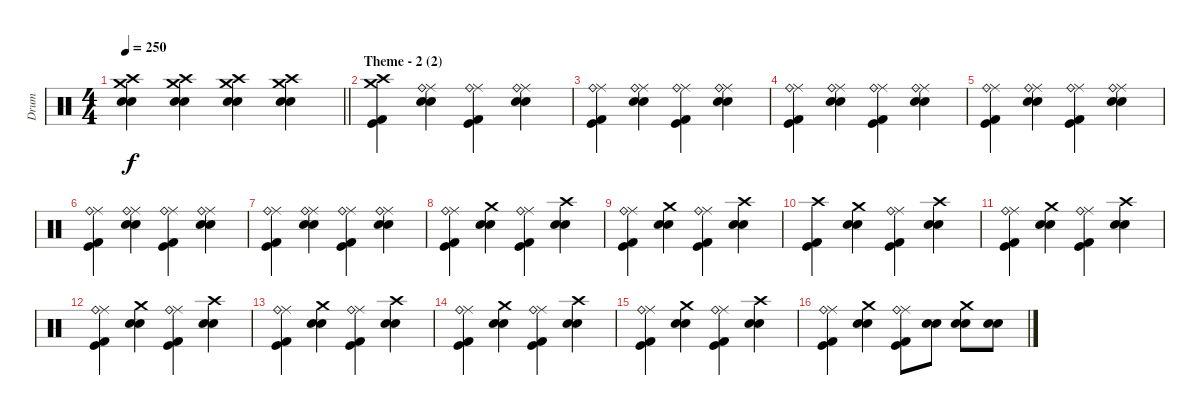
\track ("Drum" "Drum") {instrument percussion}
\staff {score}
\articulation defaults
\ts (4 4)
\tempo 250
\clef neutral
\barLineRight lightlight
\ks c
("Crash medium (hit)" "Crash high (hit)" "Electric Snare (hit)" "Snare (hit) 2").4{dy f} ("Crash medium (hit)" "Crash high (hit)" "Electric Snare (hit)" "Snare (hit) 2").4 ("Crash medium (hit)" "Crash high (hit)" "Electric Snare (hit)" "Snare (hit) 2").4 ("Crash medium (hit)" "Crash high (hit)" "Electric Snare (hit)" "Snare (hit) 2").4 |
\section ("" "Theme - 2 (2)")
("Crash high (hit)" "Crash medium (hit)" "Kick (hit) 2" "Kick (hit)").4 ("Ride (middle)" "Ride (bell)" "Electric Snare (hit)" "Snare (hit) 2").4 ("Ride (middle)" "Ride (bell)" "Kick (hit) 2" "Kick (hit)").4 ("Ride (middle)" "Ride (bell)" "Electric Snare (hit)" "Snare (hit) 2").4 |
("Ride (middle)" "Ride (bell)" "Kick (hit) 2" "Kick (hit)").4 ("Ride (middle)" "Ride (bell)" "Electric Snare (hit)" "Snare (hit) 2").4 ("Ride (middle)" "Ride (bell)" "Kick (hit) 2" "Kick (hit)").4 ("Ride (middle)" "Ride (bell)" "Electric Snare (hit)" "Snare (hit) 2").4 |
("Ride (middle)" "Ride (bell)" "Kick (hit) 2" "Kick (hit)").4 ("Ride (middle)" "Ride (bell)" "Electric Snare (hit)" "Snare (hit) 2").4 ("Ride (middle)" "Ride (bell)" "Kick (hit) 2" "Kick (hit)").4 ("Ride (middle)" "Ride (bell)" "Electric Snare (hit)" "Snare (hit) 2").4 |
("Ride (middle)" "Ride (bell)" "Kick (hit) 2" "Kick (hit)").4 ("Ride (middle)" "Ride (bell)" "Electric Snare (hit)" "Snare (hit) 2").4 ("Ride (middle)" "Ride (bell)" "Kick (hit) 2" "Kick (hit)").4 ("Ride (middle)" "Ride (bell)" "Electric Snare (hit)" "Snare (hit) 2").4 |
("Ride (middle)" "Ride (bell)" "Kick (hit) 2" "Kick (hit)").4 ("Ride (middle)" "Ride (bell)" "Electric Snare (hit)" "Snare (hit) 2").4 ("Ride (middle)" "Ride (bell)" "Kick (hit) 2" "Kick (hit)").4 ("Ride (middle)" "Ride (bell)" "Electric Snare (hit)" "Snare (hit) 2").4 |
("Ride (middle)" "Ride (bell)" "Kick (hit) 2" "Kick (hit)").4 ("Ride (middle)" "Ride (bell)" "Electric Snare (hit)" "Snare (hit) 2").4 ("Ride (middle)" "Ride (bell)" "Kick (hit) 2" "Kick (hit)").4 ("Ride (middle)" "Ride (bell)" "Electric Snare (hit)" "Snare (hit) 2").4 |
("Ride (middle)" "Ride (bell)" "Kick (hit) 2" "Kick (hit)").4 ("Crash medium (hit)" "Electric Snare (hit)" "Snare (hit) 2").4 ("Ride (middle)" "Ride (bell)" "Kick (hit) 2" "Kick (hit)").4 ("Crash high (hit)" "Electric Snare (hit)" "Snare (hit) 2").4 |
("Ride (middle)" "Ride (bell)" "Kick (hit) 2" "Kick (hit)").4 ("Crash medium (hit)" "Electric Snare (hit)" "Snare (hit) 2").4 ("Ride (middle)" "Ride (bell)" "Kick (hit) 2" "Kick (hit)").4 ("Crash high (hit)" "Electric Snare (hit)" "Snare (hit) 2").4 |
("Crash high (hit)" "Kick (hit) 2" "Kick (hit)").4 ("Crash medium (hit)" "Electric Snare (hit)" "Snare (hit) 2").4 ("Ride (middle)" "Ride (bell)" "Kick (hit) 2" "Kick (hit)").4 ("Crash high (hit)" "Electric Snare (hit)" "Snare (hit) 2").4 |
("Ride (middle)" "Ride (bell)" "Kick (hit) 2" "Kick (hit)").4 ("Crash medium (hit)" "Electric Snare (hit)" "Snare (hit) 2").4 ("Ride (middle)" "Ride (bell)" "Kick (hit) 2" "Kick (hit)").4 ("Crash high (hit)" "Electric Snare (hit)" "Snare (hit) 2").4 |
("Ride (middle)" "Ride (bell)" "Kick (hit) 2" "Kick (hit)").4 ("Crash medium (hit)" "Electric Snare (hit)" "Snare (hit) 2").4 ("Ride (middle)" "Ride (bell)" "Kick (hit) 2" "Kick (hit)").4 ("Crash high (hit)" "Electric Snare (hit)" "Snare (hit) 2").4 |
("Ride (middle)" "Ride (bell)" "Kick (hit) 2" "Kick (hit)").4 ("Crash medium (hit)" "Electric Snare (hit)" "Snare (hit) 2").4 ("Ride (middle)" "Ride (bell)" "Kick (hit) 2" "Kick (hit)").4 ("Crash high (hit)" "Electric Snare (hit)" "Snare (hit) 2").4 |
("Ride (middle)" "Ride (bell)" "Kick (hit) 2" "Kick (hit)").4 ("Crash medium (hit)" "Electric Snare (hit)" "Snare (hit) 2").4 ("Ride (middle)" "Ride (bell)" "Kick (hit) 2" "Kick (hit)").4 ("Crash high (hit)" "Electric Snare (hit)" "Snare (hit) 2").4 |
("Ride (middle)" "Ride (bell)" "Kick (hit) 2" "Kick (hit)").4 ("Crash medium (hit)" "Electric Snare (hit)" "Snare (hit) 2").4 ("Ride (middle)" "Ride (bell)" "Kick (hit) 2" "Kick (hit)").4 ("Crash high (hit)" "Electric Snare (hit)" "Snare (hit) 2").4 |
("Ride (middle)" "Ride (bell)" "Kick (hit) 2" "Kick (hit)").4 ("Crash medium (hit)" "Electric Snare (hit)" "Snare (hit) 2").4 ("Ride (middle)" "Ride (bell)" "Kick (hit) 2" "Kick (hit)").8 ("Electric Snare (hit)" "Snare (hit) 2").8 ("Crash medium (hit)" "Electric Snare (hit)" "Snare (hit) 2").8 ("Electric Snare (hit)" "Snare (hit) 2").8
